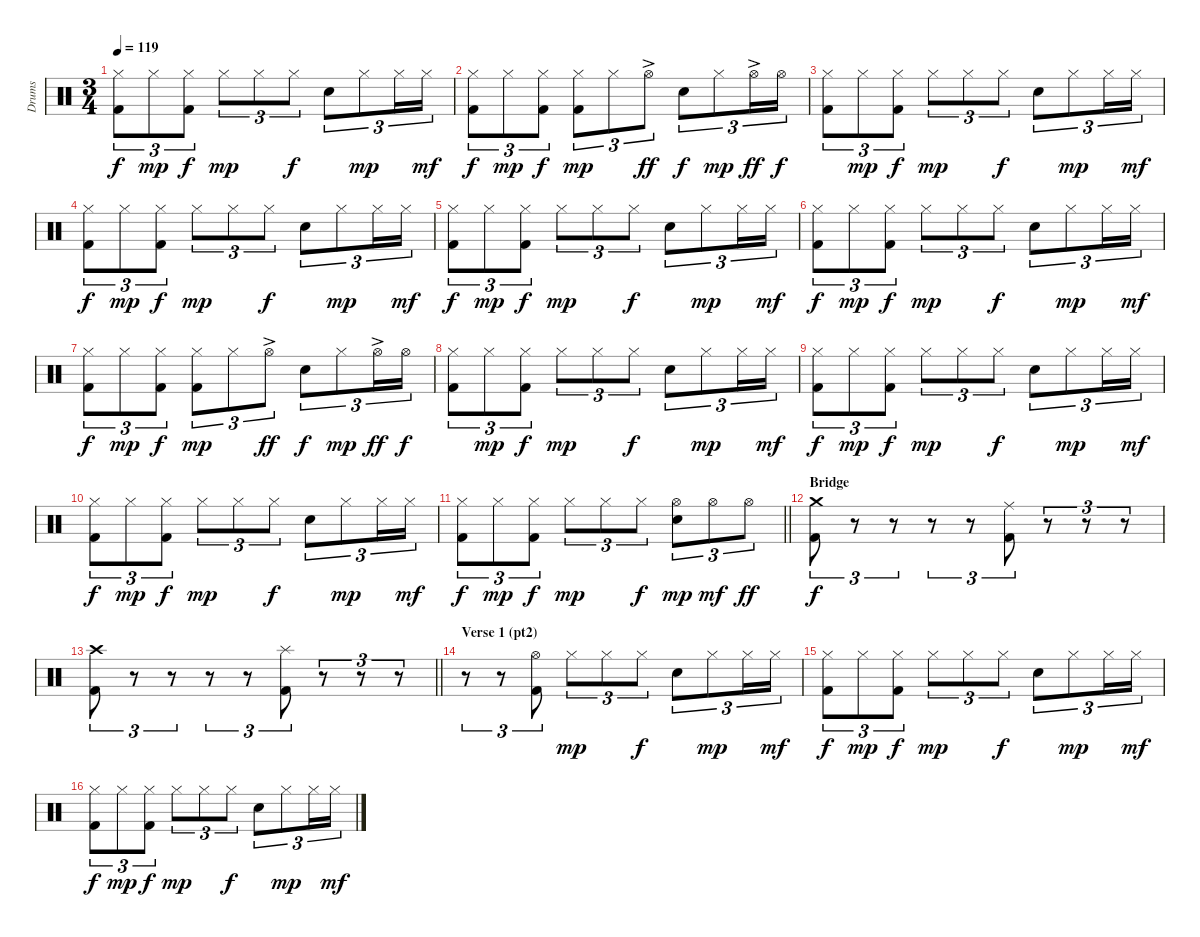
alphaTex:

\track ("Drums" "Drums") {instrument percussion}
\staff {score}
\articulation defaults
\ts (3 4)
\tempo 119
\clef neutral
\ks c
("Hi-Hat (closed)" "Kick (hit) 2").8{tu (3 2) dy f} "Hi-Hat (closed)".8{tu (3 2) dy mp} ("Hi-Hat (closed)" "Kick (hit) 2").8{tu (3 2) dy f} "Hi-Hat (closed)".8{tu (3 2) dy mp} "Hi-Hat (closed)".8{tu (3 2)} "Hi-Hat (closed)".8{tu (3 2) dy f} "Electric Snare (hit)".8{tu (3 2)} "Hi-Hat (closed)".8{tu (3 2) dy mp} "Hi-Hat (closed)".16{tu (3 2)} "Hi-Hat (closed)".16{tu (3 2) dy mf} |
("Hi-Hat (closed)" "Kick (hit) 2").8{tu (3 2) dy f} "Hi-Hat (closed)".8{tu (3 2) dy mp} ("Hi-Hat (closed)" "Kick (hit) 2").8{tu (3 2) dy f} ("Hi-Hat (closed)" "Kick (hit) 2").8{tu (3 2) dy mp} "Hi-Hat (closed)".8{tu (3 2)} "Hi-Hat (open)"{ac}.8{tu (3 2) dy ff} "Electric Snare (hit)".8{tu (3 2) dy f} "Hi-Hat (closed)".8{tu (3 2) dy mp} "Hi-Hat (open)"{ac}.16{tu (3 2) dy ff} "Hi-Hat (open)".16{tu (3 2) dy f} |
("Hi-Hat (closed)" "Kick (hit) 2").8{tu (3 2)} "Hi-Hat (closed)".8{tu (3 2) dy mp} ("Hi-Hat (closed)" "Kick (hit) 2").8{tu (3 2) dy f} "Hi-Hat (closed)".8{tu (3 2) dy mp} "Hi-Hat (closed)".8{tu (3 2)} "Hi-Hat (closed)".8{tu (3 2) dy f} "Electric Snare (hit)".8{tu (3 2)} "Hi-Hat (closed)".8{tu (3 2) dy mp} "Hi-Hat (closed)".16{tu (3 2)} "Hi-Hat (closed)".16{tu (3 2) dy mf} |
("Hi-Hat (closed)" "Kick (hit) 2").8{tu (3 2) dy f} "Hi-Hat (closed)".8{tu (3 2) dy mp} ("Hi-Hat (closed)" "Kick (hit) 2").8{tu (3 2) dy f} "Hi-Hat (closed)".8{tu (3 2) dy mp} "Hi-Hat (closed)".8{tu (3 2)} "Hi-Hat (closed)".8{tu (3 2) dy f} "Electric Snare (hit)".8{tu (3 2)} "Hi-Hat (closed)".8{tu (3 2) dy mp} "Hi-Hat (closed)".16{tu (3 2)} "Hi-Hat (closed)".16{tu (3 2) dy mf} |
("Hi-Hat (closed)" "Kick (hit) 2").8{tu (3 2) dy f} "Hi-Hat (closed)".8{tu (3 2) dy mp} ("Hi-Hat (closed)" "Kick (hit) 2").8{tu (3 2) dy f} "Hi-Hat (closed)".8{tu (3 2) dy mp} "Hi-Hat (closed)".8{tu (3 2)} "Hi-Hat (closed)".8{tu (3 2) dy f} "Electric Snare (hit)".8{tu (3 2)} "Hi-Hat (closed)".8{tu (3 2) dy mp} "Hi-Hat (closed)".16{tu (3 2)} "Hi-Hat (closed)".16{tu (3 2) dy mf} |
("Hi-Hat (closed)" "Kick (hit) 2").8{tu (3 2) dy f} "Hi-Hat (closed)".8{tu (3 2) dy mp} ("Hi-Hat (closed)" "Kick (hit) 2").8{tu (3 2) dy f} "Hi-Hat (closed)".8{tu (3 2) dy mp} "Hi-Hat (closed)".8{tu (3 2)} "Hi-Hat (closed)".8{tu (3 2) dy f} "Electric Snare (hit)".8{tu (3 2)} "Hi-Hat (closed)".8{tu (3 2) dy mp} "Hi-Hat (closed)".16{tu (3 2)} "Hi-Hat (closed)".16{tu (3 2) dy mf} |
("Hi-Hat (closed)" "Kick (hit) 2").8{tu (3 2) dy f} "Hi-Hat (closed)".8{tu (3 2) dy mp} ("Hi-Hat (closed)" "Kick (hit) 2").8{tu (3 2) dy f} ("Hi-Hat (closed)" "Kick (hit) 2").8{tu (3 2) dy mp} "Hi-Hat (closed)".8{tu (3 2)} "Hi-Hat (open)"{ac}.8{tu (3 2) dy ff} "Electric Snare (hit)".8{tu (3 2) dy f} "Hi-Hat (closed)".8{tu (3 2) dy mp} "Hi-Hat (open)"{ac}.16{tu (3 2) dy ff} "Hi-Hat (open)".16{tu (3 2) dy f} |
("Hi-Hat (closed)" "Kick (hit) 2").8{tu (3 2)} "Hi-Hat (closed)".8{tu (3 2) dy mp} ("Hi-Hat (closed)" "Kick (hit) 2").8{tu (3 2) dy f} "Hi-Hat (closed)".8{tu (3 2) dy mp} "Hi-Hat (closed)".8{tu (3 2)} "Hi-Hat (closed)".8{tu (3 2) dy f} "Electric Snare (hit)".8{tu (3 2)} "Hi-Hat (closed)".8{tu (3 2) dy mp} "Hi-Hat (closed)".16{tu (3 2)} "Hi-Hat (closed)".16{tu (3 2) dy mf} |
("Hi-Hat (closed)" "Kick (hit) 2").8{tu (3 2) dy f} "Hi-Hat (closed)".8{tu (3 2) dy mp} ("Hi-Hat (closed)" "Kick (hit) 2").8{tu (3 2) dy f} "Hi-Hat (closed)".8{tu (3 2) dy mp} "Hi-Hat (closed)".8{tu (3 2)} "Hi-Hat (closed)".8{tu (3 2) dy f} "Electric Snare (hit)".8{tu (3 2)} "Hi-Hat (closed)".8{tu (3 2) dy mp} "Hi-Hat (closed)".16{tu (3 2)} "Hi-Hat (closed)".16{tu (3 2) dy mf} |
("Hi-Hat (closed)" "Kick (hit) 2").8{tu (3 2) dy f} "Hi-Hat (closed)".8{tu (3 2) dy mp} ("Hi-Hat (closed)" "Kick (hit) 2").8{tu (3 2) dy f} "Hi-Hat (closed)".8{tu (3 2) dy mp} "Hi-Hat (closed)".8{tu (3 2)} "Hi-Hat (closed)".8{tu (3 2) dy f} "Electric Snare (hit)".8{tu (3 2)} "Hi-Hat (closed)".8{tu (3 2) dy mp} "Hi-Hat (closed)".16{tu (3 2)} "Hi-Hat (closed)".16{tu (3 2) dy mf} |
\barLineRight lightlight
("Hi-Hat (closed)" "Kick (hit) 2").8{tu (3 2) dy f} "Hi-Hat (closed)".8{tu (3 2) dy mp} ("Hi-Hat (closed)" "Kick (hit) 2").8{tu (3 2) dy f} "Hi-Hat (closed)".8{tu (3 2) dy mp} "Hi-Hat (closed)".8{tu (3 2)} "Hi-Hat (closed)".8{tu (3 2) dy f} ("Hi-Hat (open)" "Electric Snare (hit)").8{tu (3 2) dy mp} "Hi-Hat (open)".8{tu (3 2) dy mf} "Hi-Hat (open)".8{tu (3 2) dy ff} |
\section ("" "Bridge")
("Crash medium (hit)" "Kick (hit) 2").8{tu (3 2) dy f} r.8{tu (3 2)} r.8{tu (3 2)} r.8{tu (3 2)} r.8{tu (3 2)} ("Ride (middle)" "Kick (hit) 2").8{tu (3 2)} r.8{tu (3 2)} r.8{tu (3 2)} r.8{tu (3 2)} |
\barLineRight lightlight
("Crash high (hit)" "Kick (hit) 2").8{tu (3 2)} r.8{tu (3 2)} r.8{tu (3 2)} r.8{tu (3 2)} r.8{tu (3 2)} ("Splash (hit)" "Kick (hit) 2").8{tu (3 2)} r.8{tu (3 2)} r.8{tu (3 2)} r.8{tu (3 2)} |
\section ("" "Verse 1 (pt2)")
r.8{tu (3 2)} r.8{tu (3 2)} ("Hi-Hat (open)" "Kick (hit) 2").8{tu (3 2)} "Hi-Hat (closed)".8{tu (3 2) dy mp} "Hi-Hat (closed)".8{tu (3 2)} "Hi-Hat (closed)".8{tu (3 2) dy f} "Electric Snare (hit)".8{tu (3 2)} "Hi-Hat (closed)".8{tu (3 2) dy mp} "Hi-Hat (closed)".16{tu (3 2)} "Hi-Hat (closed)".16{tu (3 2) dy mf} |
("Hi-Hat (closed)" "Kick (hit) 2").8{tu (3 2) dy f} "Hi-Hat (closed)".8{tu (3 2) dy mp} ("Hi-Hat (closed)" "Kick (hit) 2").8{tu (3 2) dy f} "Hi-Hat (closed)".8{tu (3 2) dy mp} "Hi-Hat (closed)".8{tu (3 2)} "Hi-Hat (closed)".8{tu (3 2) dy f} "Electric Snare (hit)".8{tu (3 2)} "Hi-Hat (closed)".8{tu (3 2) dy mp} "Hi-Hat (closed)".16{tu (3 2)} "Hi-Hat (closed)".16{tu (3 2) dy mf} |
("Hi-Hat (closed)" "Kick (hit) 2").8{tu (3 2) dy f} "Hi-Hat (closed)".8{tu (3 2) dy mp} ("Hi-Hat (closed)" "Kick (hit) 2").8{tu (3 2) dy f} "Hi-Hat (closed)".8{tu (3 2) dy mp} "Hi-Hat (closed)".8{tu (3 2)} "Hi-Hat (closed)".8{tu (3 2) dy f} "Electric Snare (hit)".8{tu (3 2)} "Hi-Hat (closed)".8{tu (3 2) dy mp} "Hi-Hat (closed)".16{tu (3 2)} "Hi-Hat (closed)".16{tu (3 2) dy mf}
